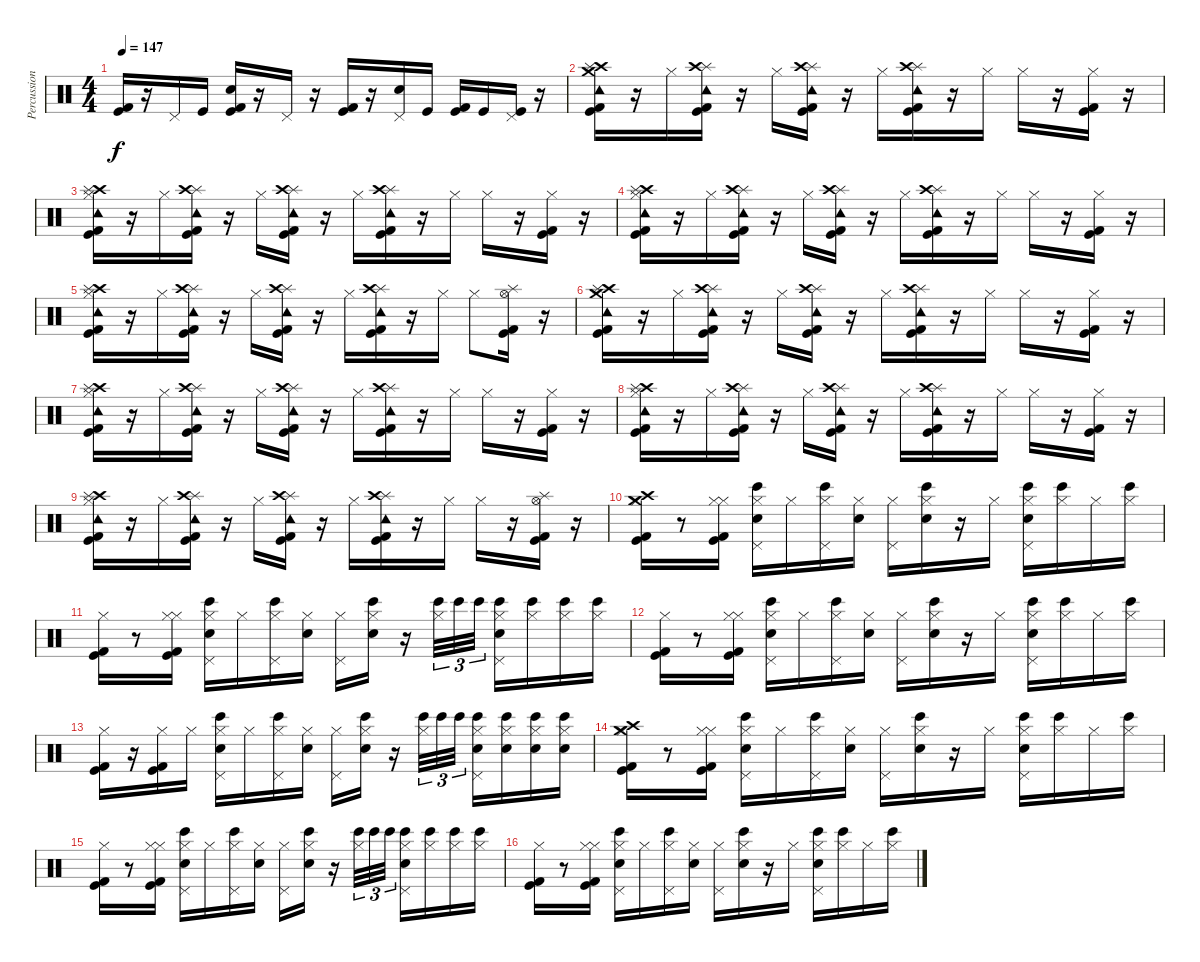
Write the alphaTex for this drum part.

\track ("Percussion (Room Kit)" "Percussion") {instrument percussion}
\staff {score}
\articulation defaults
\ts (4 4)
\tempo 147
\clef neutral
\ks c
("Kick (hit) 2" "Kick (hit)").16{dy f} r.16 "Pedal Hi-Hat (hit)".16 "Kick (hit)".16 ("Hand Clap (hit)" "Kick (hit) 2" "Kick (hit)").16 r.16 "Pedal Hi-Hat (hit)".16 r.16 ("Kick (hit) 2" "Kick (hit)").16 r.16 ("Pedal Hi-Hat (hit)" "Hand Clap (hit)").16 "Kick (hit)".16 ("Kick (hit) 2" "Kick (hit)").16 "Kick (hit)".16 ("Pedal Hi-Hat (hit)" "Kick (hit)").16 r.16 |
("Kick (hit) 2" "Kick (hit)" "Crash medium (hit)" "Crash high (hit)" "Splash (hit)" "Tambourine (hit)").16 r.16 "Hi-Hat (closed)".16 ("Kick (hit) 2" "Kick (hit)" "Splash (hit)" "Tambourine (hit)" "Crash high (hit)").16 r.16 "Hi-Hat (closed)".16 ("Kick (hit) 2" "Kick (hit)" "Splash (hit)" "Tambourine (hit)" "Crash high (hit)").16 r.16 "Hi-Hat (closed)".16 ("Kick (hit) 2" "Kick (hit)" "Splash (hit)" "Tambourine (hit)" "Crash high (hit)").16 r.16 "Hi-Hat (closed)".16 "Hi-Hat (closed)".16 r.16 ("Kick (hit) 2" "Kick (hit)" "Hi-Hat (closed)").16 r.16 |
("Kick (hit) 2" "Kick (hit)" "Crash high (hit)" "Splash (hit)" "Tambourine (hit)" "Hi-Hat (closed)").16 r.16 "Hi-Hat (closed)".16 ("Kick (hit) 2" "Kick (hit)" "Splash (hit)" "Tambourine (hit)" "Crash high (hit)").16 r.16 "Hi-Hat (closed)".16 ("Kick (hit) 2" "Kick (hit)" "Splash (hit)" "Tambourine (hit)" "Crash high (hit)").16 r.16 "Hi-Hat (closed)".16 ("Kick (hit) 2" "Kick (hit)" "Splash (hit)" "Tambourine (hit)" "Crash high (hit)").16 r.16 "Hi-Hat (closed)".16 "Hi-Hat (closed)".16 r.16 ("Kick (hit) 2" "Kick (hit)" "Hi-Hat (closed)").16 r.16 |
("Kick (hit) 2" "Kick (hit)" "Crash high (hit)" "Splash (hit)" "Tambourine (hit)" "Hi-Hat (closed)").16 r.16 "Hi-Hat (closed)".16 ("Kick (hit) 2" "Kick (hit)" "Splash (hit)" "Tambourine (hit)" "Crash high (hit)").16 r.16 "Hi-Hat (closed)".16 ("Kick (hit) 2" "Kick (hit)" "Splash (hit)" "Tambourine (hit)" "Crash high (hit)").16 r.16 "Hi-Hat (closed)".16 ("Kick (hit) 2" "Kick (hit)" "Splash (hit)" "Tambourine (hit)" "Crash high (hit)").16 r.16 "Hi-Hat (closed)".16 "Hi-Hat (closed)".16 r.16 ("Kick (hit) 2" "Kick (hit)" "Hi-Hat (closed)").16 r.16 |
("Kick (hit) 2" "Kick (hit)" "Crash high (hit)" "Splash (hit)" "Tambourine (hit)" "Hi-Hat (closed)").16 r.16 "Hi-Hat (closed)".16 ("Kick (hit) 2" "Kick (hit)" "Splash (hit)" "Tambourine (hit)" "Crash high (hit)").16 r.16 "Hi-Hat (closed)".16 ("Kick (hit) 2" "Kick (hit)" "Splash (hit)" "Tambourine (hit)" "Crash high (hit)").16 r.16 "Hi-Hat (closed)".16 ("Kick (hit) 2" "Kick (hit)" "Splash (hit)" "Tambourine (hit)" "Crash high (hit)").16 r.16 "Hi-Hat (closed)".16 "Hi-Hat (closed)".8 ("Kick (hit) 2" "Kick (hit)" "Hi-Hat (open)" "Splash (hit)").16 r.16 |
("Kick (hit) 2" "Kick (hit)" "Crash medium (hit)" "Crash high (hit)" "Splash (hit)" "Tambourine (hit)").16 r.16 "Hi-Hat (closed)".16 ("Kick (hit) 2" "Kick (hit)" "Splash (hit)" "Tambourine (hit)" "Crash high (hit)").16 r.16 "Hi-Hat (closed)".16 ("Kick (hit) 2" "Kick (hit)" "Splash (hit)" "Tambourine (hit)" "Crash high (hit)").16 r.16 "Hi-Hat (closed)".16 ("Kick (hit) 2" "Kick (hit)" "Splash (hit)" "Tambourine (hit)" "Crash high (hit)").16 r.16 "Hi-Hat (closed)".16 "Hi-Hat (closed)".16 r.16 ("Kick (hit) 2" "Kick (hit)" "Hi-Hat (closed)").16 r.16 |
("Kick (hit) 2" "Kick (hit)" "Crash high (hit)" "Splash (hit)" "Tambourine (hit)" "Hi-Hat (closed)").16 r.16 "Hi-Hat (closed)".16 ("Kick (hit) 2" "Kick (hit)" "Splash (hit)" "Tambourine (hit)" "Crash high (hit)").16 r.16 "Hi-Hat (closed)".16 ("Kick (hit) 2" "Kick (hit)" "Splash (hit)" "Tambourine (hit)" "Crash high (hit)").16 r.16 "Hi-Hat (closed)".16 ("Kick (hit) 2" "Kick (hit)" "Splash (hit)" "Tambourine (hit)" "Crash high (hit)").16 r.16 "Hi-Hat (closed)".16 "Hi-Hat (closed)".16 r.16 ("Kick (hit) 2" "Kick (hit)" "Hi-Hat (closed)").16 r.16 |
("Kick (hit) 2" "Kick (hit)" "Crash high (hit)" "Splash (hit)" "Tambourine (hit)" "Hi-Hat (closed)").16 r.16 "Hi-Hat (closed)".16 ("Kick (hit) 2" "Kick (hit)" "Splash (hit)" "Tambourine (hit)" "Crash high (hit)").16 r.16 "Hi-Hat (closed)".16 ("Kick (hit) 2" "Kick (hit)" "Splash (hit)" "Tambourine (hit)" "Crash high (hit)").16 r.16 "Hi-Hat (closed)".16 ("Kick (hit) 2" "Kick (hit)" "Splash (hit)" "Tambourine (hit)" "Crash high (hit)").16 r.16 "Hi-Hat (closed)".16 "Hi-Hat (closed)".16 r.16 ("Kick (hit) 2" "Kick (hit)" "Hi-Hat (closed)").16 r.16 |
("Kick (hit) 2" "Kick (hit)" "Crash high (hit)" "Splash (hit)" "Tambourine (hit)" "Hi-Hat (closed)").16 r.16 "Hi-Hat (closed)".16 ("Kick (hit) 2" "Kick (hit)" "Splash (hit)" "Tambourine (hit)" "Crash high (hit)").16 r.16 "Hi-Hat (closed)".16 ("Kick (hit) 2" "Kick (hit)" "Splash (hit)" "Tambourine (hit)" "Crash high (hit)").16 r.16 "Hi-Hat (closed)".16 ("Kick (hit) 2" "Kick (hit)" "Splash (hit)" "Tambourine (hit)" "Crash high (hit)").16 r.16 "Hi-Hat (closed)".16 "Hi-Hat (closed)".16 r.16 ("Kick (hit) 2" "Kick (hit)" "Hi-Hat (open)" "Splash (hit)").16 r.16 |
("Hi-Hat (closed)" "Kick (hit)" "Kick (hit) 2" "Crash medium (hit)" "Crash high (hit)").16 r.8 ("Hi-Hat (closed)" "Kick (hit) 2" "Kick (hit)" "Hi-Hat (closed)").16 ("Bongo High (hit)" "Hand Clap (hit)" "Hi-Hat (closed)" "Pedal Hi-Hat (hit)").16 "Hi-Hat (closed)".16 ("Bongo High (hit)" "Hi-Hat (closed)" "Pedal Hi-Hat (hit)").16 ("Hand Clap (hit)" "Hi-Hat (closed)").16 ("Hi-Hat (closed)" "Pedal Hi-Hat (hit)").16 ("Hand Clap (hit)" "Bongo High (hit)" "Hi-Hat (closed)").16 r.16 "Hi-Hat (closed)".16 ("Bongo High (hit)" "Hand Clap (hit)" "Hi-Hat (closed)" "Pedal Hi-Hat (hit)").16 ("Bongo High (hit)" "Hi-Hat (closed)").16 "Hi-Hat (closed)".16 ("Bongo High (hit)" "Hi-Hat (closed)").16 |
("Hi-Hat (closed)" "Kick (hit)" "Kick (hit) 2").16 r.8 ("Hi-Hat (closed)" "Kick (hit) 2" "Kick (hit)" "Hi-Hat (closed)").16 ("Bongo High (hit)" "Hand Clap (hit)" "Hi-Hat (closed)" "Pedal Hi-Hat (hit)").16 "Hi-Hat (closed)".16 ("Bongo High (hit)" "Hi-Hat (closed)" "Pedal Hi-Hat (hit)").16 ("Hand Clap (hit)" "Hi-Hat (closed)").16 ("Hi-Hat (closed)" "Pedal Hi-Hat (hit)").16 ("Hand Clap (hit)" "Bongo High (hit)" "Hi-Hat (closed)").16 r.16 ("Hi-Hat (closed)" "Bongo High (hit)").32{tu (3 2)} "Bongo High (hit)".32{tu (3 2)} "Bongo High (hit)".32{tu (3 2)} ("Bongo High (hit)" "Hand Clap (hit)" "Hi-Hat (closed)" "Pedal Hi-Hat (hit)").16 ("Bongo High (hit)" "Hi-Hat (closed)").16 ("Hi-Hat (closed)" "Bongo High (hit)").16 ("Bongo High (hit)" "Hi-Hat (closed)").16 |
("Hi-Hat (closed)" "Kick (hit)" "Kick (hit) 2").16 r.8 ("Hi-Hat (closed)" "Kick (hit) 2" "Kick (hit)" "Hi-Hat (closed)").16 ("Bongo High (hit)" "Hand Clap (hit)" "Hi-Hat (closed)" "Pedal Hi-Hat (hit)").16 "Hi-Hat (closed)".16 ("Bongo High (hit)" "Hi-Hat (closed)" "Pedal Hi-Hat (hit)").16 ("Hand Clap (hit)" "Hi-Hat (closed)").16 ("Hi-Hat (closed)" "Pedal Hi-Hat (hit)").16 ("Hand Clap (hit)" "Bongo High (hit)" "Hi-Hat (closed)").16 r.16 "Hi-Hat (closed)".16 ("Bongo High (hit)" "Hand Clap (hit)" "Hi-Hat (closed)" "Pedal Hi-Hat (hit)").16 ("Bongo High (hit)" "Hi-Hat (closed)").16 "Hi-Hat (closed)".16 ("Bongo High (hit)" "Hi-Hat (closed)").16 |
("Hi-Hat (closed)" "Kick (hit)" "Kick (hit) 2").16 r.16 ("Kick (hit) 2" "Kick (hit)" "Hi-Hat (closed)").16 "Hi-Hat (closed)".16 ("Bongo High (hit)" "Hand Clap (hit)" "Hi-Hat (closed)" "Pedal Hi-Hat (hit)").16 "Hi-Hat (closed)".16 ("Bongo High (hit)" "Hi-Hat (closed)" "Pedal Hi-Hat (hit)").16 ("Hand Clap (hit)" "Hi-Hat (closed)").16 ("Hi-Hat (closed)" "Pedal Hi-Hat (hit)").16 ("Hand Clap (hit)" "Bongo High (hit)" "Hi-Hat (closed)").16 r.16 ("Hi-Hat (closed)" "Bongo High (hit)").32{tu (3 2)} "Bongo High (hit)".32{tu (3 2)} "Bongo High (hit)".32{tu (3 2)} ("Bongo High (hit)" "Hand Clap (hit)" "Hi-Hat (closed)" "Pedal Hi-Hat (hit)").16 ("Bongo High (hit)" "Hi-Hat (closed)" "Hand Clap (hit)").16 ("Hi-Hat (closed)" "Bongo High (hit)" "Hand Clap (hit)").16 ("Bongo High (hit)" "Hi-Hat (closed)" "Hand Clap (hit)").16 |
("Hi-Hat (closed)" "Kick (hit)" "Kick (hit) 2" "Crash medium (hit)" "Crash high (hit)").16 r.8 ("Hi-Hat (closed)" "Kick (hit) 2" "Kick (hit)" "Hi-Hat (closed)").16 ("Bongo High (hit)" "Hand Clap (hit)" "Hi-Hat (closed)" "Pedal Hi-Hat (hit)").16 "Hi-Hat (closed)".16 ("Bongo High (hit)" "Hi-Hat (closed)" "Pedal Hi-Hat (hit)").16 ("Hand Clap (hit)" "Hi-Hat (closed)").16 ("Hi-Hat (closed)" "Pedal Hi-Hat (hit)").16 ("Hand Clap (hit)" "Bongo High (hit)" "Hi-Hat (closed)").16 r.16 "Hi-Hat (closed)".16 ("Bongo High (hit)" "Hand Clap (hit)" "Hi-Hat (closed)" "Pedal Hi-Hat (hit)").16 ("Bongo High (hit)" "Hi-Hat (closed)").16 "Hi-Hat (closed)".16 ("Bongo High (hit)" "Hi-Hat (closed)").16 |
("Hi-Hat (closed)" "Kick (hit)" "Kick (hit) 2").16 r.8 ("Hi-Hat (closed)" "Kick (hit) 2" "Kick (hit)" "Hi-Hat (closed)").16 ("Bongo High (hit)" "Hand Clap (hit)" "Hi-Hat (closed)" "Pedal Hi-Hat (hit)").16 "Hi-Hat (closed)".16 ("Bongo High (hit)" "Hi-Hat (closed)" "Pedal Hi-Hat (hit)").16 ("Hand Clap (hit)" "Hi-Hat (closed)").16 ("Hi-Hat (closed)" "Pedal Hi-Hat (hit)").16 ("Hand Clap (hit)" "Bongo High (hit)" "Hi-Hat (closed)").16 r.16 ("Hi-Hat (closed)" "Bongo High (hit)").32{tu (3 2)} "Bongo High (hit)".32{tu (3 2)} "Bongo High (hit)".32{tu (3 2)} ("Bongo High (hit)" "Hand Clap (hit)" "Hi-Hat (closed)" "Pedal Hi-Hat (hit)").16 ("Bongo High (hit)" "Hi-Hat (closed)").16 ("Hi-Hat (closed)" "Bongo High (hit)").16 ("Bongo High (hit)" "Hi-Hat (closed)").16 |
("Hi-Hat (closed)" "Kick (hit)" "Kick (hit) 2").16 r.8 ("Hi-Hat (closed)" "Kick (hit) 2" "Kick (hit)" "Hi-Hat (closed)").16 ("Bongo High (hit)" "Hand Clap (hit)" "Hi-Hat (closed)" "Pedal Hi-Hat (hit)").16 "Hi-Hat (closed)".16 ("Bongo High (hit)" "Hi-Hat (closed)" "Pedal Hi-Hat (hit)").16 ("Hand Clap (hit)" "Hi-Hat (closed)").16 ("Hi-Hat (closed)" "Pedal Hi-Hat (hit)").16 ("Hand Clap (hit)" "Bongo High (hit)" "Hi-Hat (closed)").16 r.16 "Hi-Hat (closed)".16 ("Bongo High (hit)" "Hand Clap (hit)" "Hi-Hat (closed)" "Pedal Hi-Hat (hit)").16 ("Bongo High (hit)" "Hi-Hat (closed)").16 "Hi-Hat (closed)".16 ("Bongo High (hit)" "Hi-Hat (closed)").16
